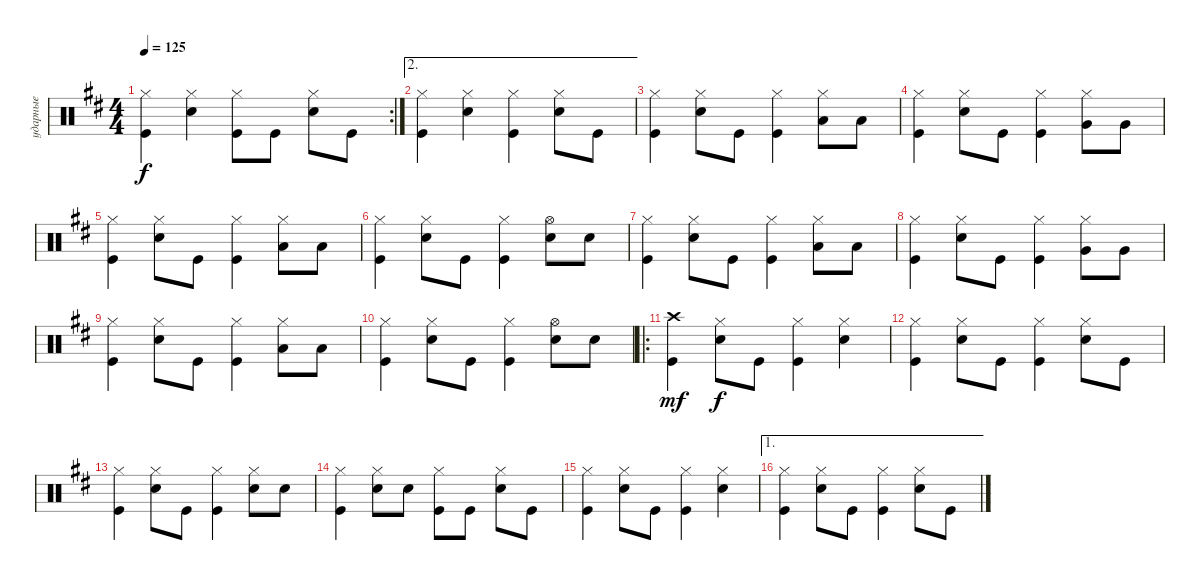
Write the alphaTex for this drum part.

\track ("ударные" "ударные") {instrument percussion}
\staff {score}
\articulation defaults
\rc 2
\ts (4 4)
\tempo 125
\clef neutral
\ks d
("Kick (hit)" "Hi-Hat (closed)").4{dy f} ("Snare (hit) 2" "Hi-Hat (closed)").4 ("Kick (hit)" "Hi-Hat (closed)").8 "Kick (hit)".8 ("Snare (hit) 2" "Hi-Hat (closed)").8 "Kick (hit)".8 |
\ae 2
("Kick (hit)" "Hi-Hat (closed)").4 ("Snare (hit) 2" "Hi-Hat (closed)").4 ("Kick (hit)" "Hi-Hat (closed)").4 ("Snare (hit) 2" "Hi-Hat (closed)").8 "Kick (hit)".8 |
("Kick (hit)" "Hi-Hat (closed)").4 ("Snare (hit) 2" "Hi-Hat (closed)").8 "Kick (hit)".8 ("Kick (hit)" "Hi-Hat (closed)").4 ("Hi-Hat (closed)" "Low Tom (hit)").8 "Low Tom (hit)".8 |
("Kick (hit)" "Hi-Hat (closed)").4 ("Snare (hit) 2" "Hi-Hat (closed)").8 "Kick (hit)".8 ("Kick (hit)" "Hi-Hat (closed)").4 ("Hi-Hat (closed)" "Very Low Tom (hit)").8 "Very Low Tom (hit)".8 |
("Kick (hit)" "Hi-Hat (closed)").4 ("Snare (hit) 2" "Hi-Hat (closed)").8 "Kick (hit)".8 ("Kick (hit)" "Hi-Hat (closed)").4 ("Low Floor Tom (hit)" "Hi-Hat (closed)").8 "Low Floor Tom (hit)".8 |
("Kick (hit)" "Hi-Hat (closed)").4 ("Snare (hit) 2" "Hi-Hat (closed)").8 "Kick (hit)".8 ("Kick (hit)" "Hi-Hat (closed)").4 ("Snare (hit) 2" "Hi-Hat (open)").8 "Snare (hit) 2".8 |
("Kick (hit)" "Hi-Hat (closed)").4 ("Snare (hit) 2" "Hi-Hat (closed)").8 "Kick (hit)".8 ("Kick (hit)" "Hi-Hat (closed)").4 ("Hi-Hat (closed)" "Low Tom (hit)").8 "Low Tom (hit)".8 |
("Kick (hit)" "Hi-Hat (closed)").4 ("Snare (hit) 2" "Hi-Hat (closed)").8 "Kick (hit)".8 ("Kick (hit)" "Hi-Hat (closed)").4 ("Hi-Hat (closed)" "Very Low Tom (hit)").8 "Very Low Tom (hit)".8 |
("Kick (hit)" "Hi-Hat (closed)").4 ("Snare (hit) 2" "Hi-Hat (closed)").8 "Kick (hit)".8 ("Kick (hit)" "Hi-Hat (closed)").4 ("Low Floor Tom (hit)" "Hi-Hat (closed)").8 "Low Floor Tom (hit)".8 |
("Kick (hit)" "Hi-Hat (closed)").4 ("Snare (hit) 2" "Hi-Hat (closed)").8 "Kick (hit)".8 ("Kick (hit)" "Hi-Hat (closed)").4 ("Snare (hit) 2" "Hi-Hat (open)").8 "Snare (hit) 2".8 |
\ro
("Kick (hit)" "Crash high (hit)").4{dy mf} ("Snare (hit) 2" "Hi-Hat (closed)").8{dy f} "Kick (hit)".8 ("Kick (hit)" "Hi-Hat (closed)").4 ("Snare (hit) 2" "Hi-Hat (closed)").4 |
("Kick (hit)" "Hi-Hat (closed)").4 ("Snare (hit) 2" "Hi-Hat (closed)").8 "Kick (hit)".8 ("Kick (hit)" "Hi-Hat (closed)").4 ("Snare (hit) 2" "Hi-Hat (closed)").8 "Kick (hit)".8 |
("Kick (hit)" "Hi-Hat (closed)").4 ("Snare (hit) 2" "Hi-Hat (closed)").8 "Kick (hit)".8 ("Kick (hit)" "Hi-Hat (closed)").4 ("Snare (hit) 2" "Hi-Hat (closed)").8 "Snare (hit) 2".8 |
("Kick (hit)" "Hi-Hat (closed)").4 ("Snare (hit) 2" "Hi-Hat (closed)").8 "Snare (hit) 2".8 ("Kick (hit)" "Hi-Hat (closed)").8 "Kick (hit)".8 ("Snare (hit) 2" "Hi-Hat (closed)").8 "Kick (hit)".8 |
("Kick (hit)" "Hi-Hat (closed)").4 ("Snare (hit) 2" "Hi-Hat (closed)").8 "Kick (hit)".8 ("Kick (hit)" "Hi-Hat (closed)").4 ("Snare (hit) 2" "Hi-Hat (closed)").4 |
\ae 1
("Kick (hit)" "Hi-Hat (closed)").4 ("Snare (hit) 2" "Hi-Hat (closed)").8 "Kick (hit)".8 ("Kick (hit)" "Hi-Hat (closed)").4 ("Snare (hit) 2" "Hi-Hat (closed)").8 "Kick (hit)".8
